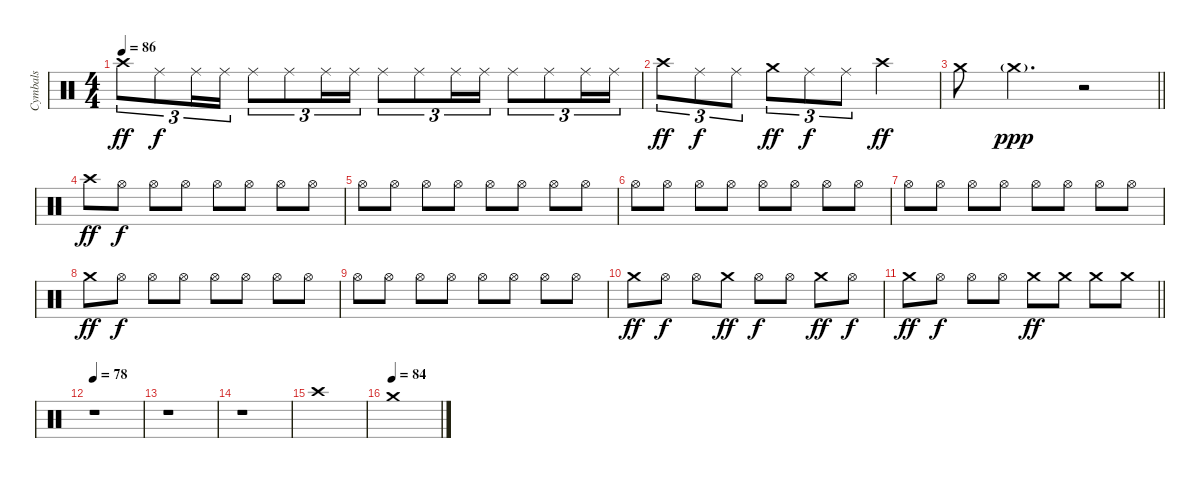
\track ("Cymbals" "Cymbals") {instrument percussion}
\staff {score}
\articulation defaults
\ts (4 4)
\tempo 86
\clef neutral
\ks c "Crash high (hit)".8{tu (3 2) dy ff} "Ride (middle)".8{tu (3 2) dy f} "Ride (middle)".16{tu (3 2)} "Ride (middle)".16{tu (3 2)} "Ride (middle)".8{tu (3 2)} "Ride (middle)".8{tu (3 2)} "Ride (middle)".16{tu (3 2)} "Ride (middle)".16{tu (3 2)} "Ride (middle)".8{tu (3 2)} "Ride (middle)".8{tu (3 2)} "Ride (middle)".16{tu (3 2)} "Ride (middle)".16{tu (3 2)} "Ride (middle)".8{tu (3 2)} "Ride (middle)".8{tu (3 2)} "Ride (middle)".16{tu (3 2)} "Ride (middle)".16{tu (3 2)}
|
"Crash high (hit)".8{tu (3 2) dy ff} "Ride (middle)".8{tu (3 2) dy f} "Ride (middle)".8{tu (3 2)} "Crash medium (hit)".8{tu (3 2) dy ff} "Ride (middle)".8{tu (3 2) dy f} "Ride (middle)".8{tu (3 2)} "Crash high (hit)".2{dy ff} |
\barLineRight lightlight "Crash medium (hit)".8 "Crash medium (hit)"{g}.4{d dy ppp}
r.2 |
\section ("" "")
"Crash high (hit)".8{dy ff} "Hi-Hat (open)".8{dy f} "Hi-Hat (open)".8 "Hi-Hat (open)".8 "Hi-Hat (open)".8 "Hi-Hat (open)".8 "Hi-Hat (open)".8 "Hi-Hat (open)".8 |
"Hi-Hat (open)".8 "Hi-Hat (open)".8 "Hi-Hat (open)".8 "Hi-Hat (open)".8 "Hi-Hat (open)".8 "Hi-Hat (open)".8 "Hi-Hat (open)".8 "Hi-Hat (open)".8 |
"Hi-Hat (open)".8 "Hi-Hat (open)".8 "Hi-Hat (open)".8 "Hi-Hat (open)".8 "Hi-Hat (open)".8 "Hi-Hat (open)".8 "Hi-Hat (open)".8 "Hi-Hat (open)".8 |
"Hi-Hat (open)".8 "Hi-Hat (open)".8 "Hi-Hat (open)".8 "Hi-Hat (open)".8 "Hi-Hat (open)".8 "Hi-Hat (open)".8 "Hi-Hat (open)".8 "Hi-Hat (open)".8 |
"Crash medium (hit)".8{dy ff} "Hi-Hat (open)".8{dy f} "Hi-Hat (open)".8 "Hi-Hat (open)".8 "Hi-Hat (open)".8 "Hi-Hat (open)".8 "Hi-Hat (open)".8 "Hi-Hat (open)".8 |
"Hi-Hat (open)".8 "Hi-Hat (open)".8 "Hi-Hat (open)".8 "Hi-Hat (open)".8 "Hi-Hat (open)".8 "Hi-Hat (open)".8 "Hi-Hat (open)".8 "Hi-Hat (open)".8 |
"Crash medium (hit)".8{dy ff} "Hi-Hat (open)".8{dy f} "Hi-Hat (open)".8 "Crash medium (hit)".8{dy ff} "Hi-Hat (open)".8{dy f} "Hi-Hat (open)".8 "Crash medium (hit)".8{dy ff} "Hi-Hat (open)".8{dy f} |
\barLineRight lightlight "Crash medium (hit)".8{dy ff} "Hi-Hat (open)".8{dy f} "Hi-Hat (open)".8 "Hi-Hat (open)".8 "Crash medium (hit)".8{dy ff} "Crash medium (hit)".8 "Crash medium (hit)".8 "Crash medium (hit)".8
|
\section ("" "")
\tempo 78
r.1 |
r.1 |
r.1 |
"Crash high (hit)".1 |
\tempo (84)
"Crash medium (hit)".1
